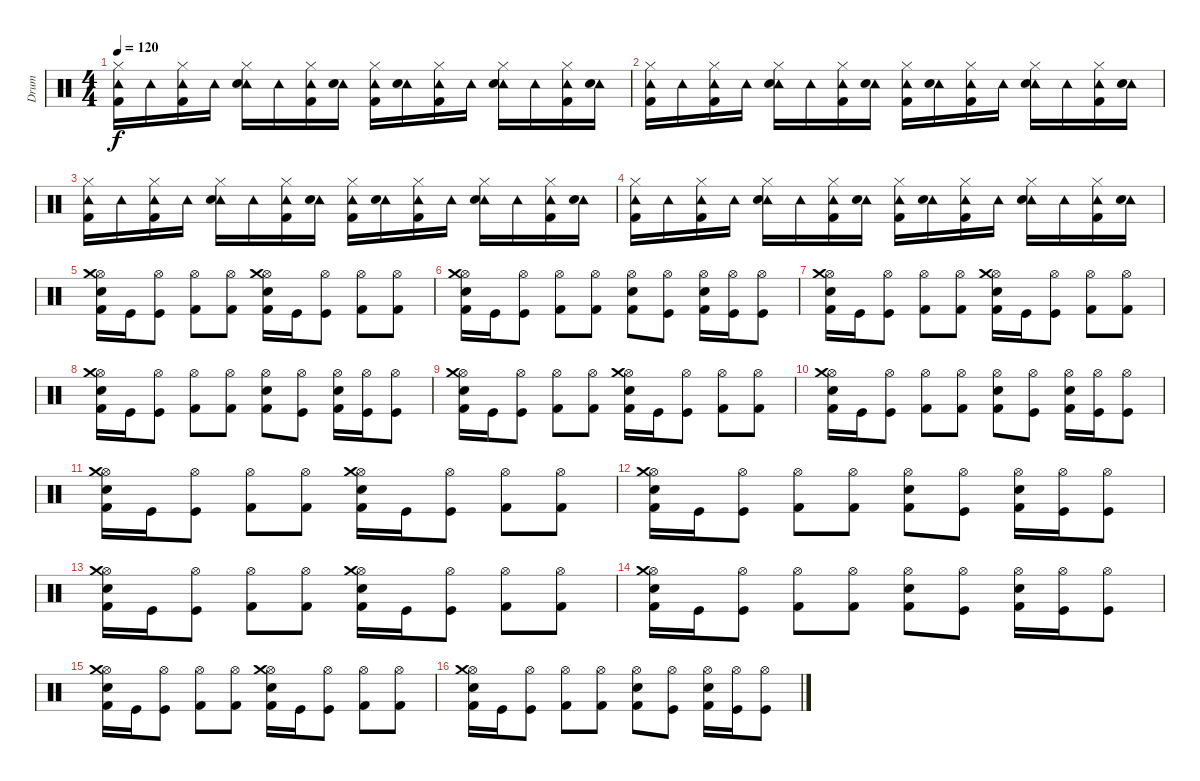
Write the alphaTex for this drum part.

\track ("Drum" "Drum") {instrument percussion}
\staff {score}
\articulation defaults
\ts (4 4)
\tempo 120
\clef neutral
\ks c
("Hi-Hat (closed)" "Tambourine (hit)" "Kick (hit) 2").16{dy f} "Tambourine (hit)".16 ("Hi-Hat (closed)" "Tambourine (hit)" "Kick (hit) 2").16 "Tambourine (hit)".16 ("Hi-Hat (closed)" "Tambourine (hit)" "Electric Snare (hit)").16 "Tambourine (hit)".16 ("Hi-Hat (closed)" "Tambourine (hit)" "Kick (hit) 2").16 ("Tambourine (hit)" "Electric Snare (hit)").16 ("Hi-Hat (closed)" "Tambourine (hit)" "Kick (hit) 2").16 ("Tambourine (hit)" "Electric Snare (hit)").16 ("Hi-Hat (closed)" "Tambourine (hit)" "Kick (hit) 2").16 "Tambourine (hit)".16 ("Hi-Hat (closed)" "Tambourine (hit)" "Electric Snare (hit)").16 "Tambourine (hit)".16 ("Hi-Hat (closed)" "Tambourine (hit)" "Kick (hit) 2").16 ("Tambourine (hit)" "Electric Snare (hit)").16 |
("Hi-Hat (closed)" "Tambourine (hit)" "Kick (hit) 2").16 "Tambourine (hit)".16 ("Hi-Hat (closed)" "Tambourine (hit)" "Kick (hit) 2").16 "Tambourine (hit)".16 ("Hi-Hat (closed)" "Tambourine (hit)" "Electric Snare (hit)").16 "Tambourine (hit)".16 ("Hi-Hat (closed)" "Tambourine (hit)" "Kick (hit) 2").16 ("Tambourine (hit)" "Electric Snare (hit)").16 ("Hi-Hat (closed)" "Tambourine (hit)" "Kick (hit) 2").16 ("Tambourine (hit)" "Electric Snare (hit)").16 ("Hi-Hat (closed)" "Tambourine (hit)" "Kick (hit) 2").16 "Tambourine (hit)".16 ("Hi-Hat (closed)" "Tambourine (hit)" "Electric Snare (hit)").16 "Tambourine (hit)".16 ("Hi-Hat (closed)" "Tambourine (hit)" "Kick (hit) 2").16 ("Tambourine (hit)" "Electric Snare (hit)").16 |
("Hi-Hat (closed)" "Tambourine (hit)" "Kick (hit) 2").16 "Tambourine (hit)".16 ("Hi-Hat (closed)" "Tambourine (hit)" "Kick (hit) 2").16 "Tambourine (hit)".16 ("Hi-Hat (closed)" "Tambourine (hit)" "Electric Snare (hit)").16 "Tambourine (hit)".16 ("Hi-Hat (closed)" "Tambourine (hit)" "Kick (hit) 2").16 ("Tambourine (hit)" "Electric Snare (hit)").16 ("Hi-Hat (closed)" "Tambourine (hit)" "Kick (hit) 2").16 ("Tambourine (hit)" "Electric Snare (hit)").16 ("Hi-Hat (closed)" "Tambourine (hit)" "Kick (hit) 2").16 "Tambourine (hit)".16 ("Hi-Hat (closed)" "Tambourine (hit)" "Electric Snare (hit)").16 "Tambourine (hit)".16 ("Hi-Hat (closed)" "Tambourine (hit)" "Kick (hit) 2").16 ("Tambourine (hit)" "Electric Snare (hit)").16 |
("Hi-Hat (closed)" "Tambourine (hit)" "Kick (hit) 2").16 "Tambourine (hit)".16 ("Hi-Hat (closed)" "Tambourine (hit)" "Kick (hit) 2").16 "Tambourine (hit)".16 ("Hi-Hat (closed)" "Tambourine (hit)" "Electric Snare (hit)").16 "Tambourine (hit)".16 ("Hi-Hat (closed)" "Tambourine (hit)" "Kick (hit) 2").16 ("Tambourine (hit)" "Electric Snare (hit)").16 ("Hi-Hat (closed)" "Tambourine (hit)" "Kick (hit) 2").16 ("Tambourine (hit)" "Electric Snare (hit)").16 ("Hi-Hat (closed)" "Tambourine (hit)" "Kick (hit) 2").16 "Tambourine (hit)".16 ("Hi-Hat (closed)" "Tambourine (hit)" "Electric Snare (hit)").16 "Tambourine (hit)".16 ("Hi-Hat (closed)" "Tambourine (hit)" "Kick (hit) 2").16 ("Tambourine (hit)" "Electric Snare (hit)").16 |
("Hi-Hat (open)" "Crash medium (hit)" "Snare (hit) 2" "Kick (hit) 2").16 "Kick (hit)".16 ("Hi-Hat (open)" "Kick (hit)").8 ("Hi-Hat (open)" "Kick (hit) 2").8 ("Hi-Hat (open)" "Kick (hit) 2").8 ("Hi-Hat (open)" "Crash medium (hit)" "Snare (hit) 2" "Kick (hit) 2").16 "Kick (hit)".16 ("Hi-Hat (open)" "Kick (hit)").8 ("Hi-Hat (open)" "Kick (hit) 2").8 ("Hi-Hat (open)" "Kick (hit) 2").8 |
("Hi-Hat (open)" "Crash medium (hit)" "Snare (hit) 2" "Kick (hit) 2").16 "Kick (hit)".16 ("Hi-Hat (open)" "Kick (hit)").8 ("Hi-Hat (open)" "Kick (hit) 2").8 ("Hi-Hat (open)" "Kick (hit) 2").8 ("Hi-Hat (open)" "Snare (hit) 2" "Kick (hit) 2").8 ("Hi-Hat (open)" "Kick (hit)").8 ("Hi-Hat (open)" "Snare (hit) 2" "Kick (hit) 2").16 ("Hi-Hat (open)" "Kick (hit)").16 ("Hi-Hat (open)" "Kick (hit)").8 |
("Hi-Hat (open)" "Crash medium (hit)" "Snare (hit) 2" "Kick (hit) 2").16 "Kick (hit)".16 ("Hi-Hat (open)" "Kick (hit)").8 ("Hi-Hat (open)" "Kick (hit) 2").8 ("Hi-Hat (open)" "Kick (hit) 2").8 ("Hi-Hat (open)" "Crash medium (hit)" "Snare (hit) 2" "Kick (hit) 2").16 "Kick (hit)".16 ("Hi-Hat (open)" "Kick (hit)").8 ("Hi-Hat (open)" "Kick (hit) 2").8 ("Hi-Hat (open)" "Kick (hit) 2").8 |
("Hi-Hat (open)" "Crash medium (hit)" "Snare (hit) 2" "Kick (hit) 2").16 "Kick (hit)".16 ("Hi-Hat (open)" "Kick (hit)").8 ("Hi-Hat (open)" "Kick (hit) 2").8 ("Hi-Hat (open)" "Kick (hit) 2").8 ("Hi-Hat (open)" "Snare (hit) 2" "Kick (hit) 2").8 ("Hi-Hat (open)" "Kick (hit)").8 ("Hi-Hat (open)" "Snare (hit) 2" "Kick (hit) 2").16 ("Hi-Hat (open)" "Kick (hit)").16 ("Hi-Hat (open)" "Kick (hit)").8 |
("Hi-Hat (open)" "Crash medium (hit)" "Snare (hit) 2" "Kick (hit) 2").16 "Kick (hit)".16 ("Hi-Hat (open)" "Kick (hit)").8 ("Hi-Hat (open)" "Kick (hit) 2").8 ("Hi-Hat (open)" "Kick (hit) 2").8 ("Hi-Hat (open)" "Crash medium (hit)" "Snare (hit) 2" "Kick (hit) 2").16 "Kick (hit)".16 ("Hi-Hat (open)" "Kick (hit)").8 ("Hi-Hat (open)" "Kick (hit) 2").8 ("Hi-Hat (open)" "Kick (hit) 2").8 |
("Hi-Hat (open)" "Crash medium (hit)" "Snare (hit) 2" "Kick (hit) 2").16 "Kick (hit)".16 ("Hi-Hat (open)" "Kick (hit)").8 ("Hi-Hat (open)" "Kick (hit) 2").8 ("Hi-Hat (open)" "Kick (hit) 2").8 ("Hi-Hat (open)" "Snare (hit) 2" "Kick (hit) 2").8 ("Hi-Hat (open)" "Kick (hit)").8 ("Hi-Hat (open)" "Snare (hit) 2" "Kick (hit) 2").16 ("Hi-Hat (open)" "Kick (hit)").16 ("Hi-Hat (open)" "Kick (hit)").8 |
("Hi-Hat (open)" "Crash medium (hit)" "Snare (hit) 2" "Kick (hit) 2").16 "Kick (hit)".16 ("Hi-Hat (open)" "Kick (hit)").8 ("Hi-Hat (open)" "Kick (hit) 2").8 ("Hi-Hat (open)" "Kick (hit) 2").8 ("Hi-Hat (open)" "Crash medium (hit)" "Snare (hit) 2" "Kick (hit) 2").16 "Kick (hit)".16 ("Hi-Hat (open)" "Kick (hit)").8 ("Hi-Hat (open)" "Kick (hit) 2").8 ("Hi-Hat (open)" "Kick (hit) 2").8 |
("Hi-Hat (open)" "Crash medium (hit)" "Snare (hit) 2" "Kick (hit) 2").16 "Kick (hit)".16 ("Hi-Hat (open)" "Kick (hit)").8 ("Hi-Hat (open)" "Kick (hit) 2").8 ("Hi-Hat (open)" "Kick (hit) 2").8 ("Hi-Hat (open)" "Snare (hit) 2" "Kick (hit) 2").8 ("Hi-Hat (open)" "Kick (hit)").8 ("Hi-Hat (open)" "Snare (hit) 2" "Kick (hit) 2").16 ("Hi-Hat (open)" "Kick (hit)").16 ("Hi-Hat (open)" "Kick (hit)").8 |
("Hi-Hat (open)" "Crash medium (hit)" "Snare (hit) 2" "Kick (hit) 2").16 "Kick (hit)".16 ("Hi-Hat (open)" "Kick (hit)").8 ("Hi-Hat (open)" "Kick (hit) 2").8 ("Hi-Hat (open)" "Kick (hit) 2").8 ("Hi-Hat (open)" "Crash medium (hit)" "Snare (hit) 2" "Kick (hit) 2").16 "Kick (hit)".16 ("Hi-Hat (open)" "Kick (hit)").8 ("Hi-Hat (open)" "Kick (hit) 2").8 ("Hi-Hat (open)" "Kick (hit) 2").8 |
("Hi-Hat (open)" "Crash medium (hit)" "Snare (hit) 2" "Kick (hit) 2").16 "Kick (hit)".16 ("Hi-Hat (open)" "Kick (hit)").8 ("Hi-Hat (open)" "Kick (hit) 2").8 ("Hi-Hat (open)" "Kick (hit) 2").8 ("Hi-Hat (open)" "Snare (hit) 2" "Kick (hit) 2").8 ("Hi-Hat (open)" "Kick (hit)").8 ("Hi-Hat (open)" "Snare (hit) 2" "Kick (hit) 2").16 ("Hi-Hat (open)" "Kick (hit)").16 ("Hi-Hat (open)" "Kick (hit)").8 |
("Hi-Hat (open)" "Crash medium (hit)" "Snare (hit) 2" "Kick (hit) 2").16 "Kick (hit)".16 ("Hi-Hat (open)" "Kick (hit)").8 ("Hi-Hat (open)" "Kick (hit) 2").8 ("Hi-Hat (open)" "Kick (hit) 2").8 ("Hi-Hat (open)" "Crash medium (hit)" "Snare (hit) 2" "Kick (hit) 2").16 "Kick (hit)".16 ("Hi-Hat (open)" "Kick (hit)").8 ("Hi-Hat (open)" "Kick (hit) 2").8 ("Hi-Hat (open)" "Kick (hit) 2").8 |
("Hi-Hat (open)" "Crash medium (hit)" "Snare (hit) 2" "Kick (hit) 2").16 "Kick (hit)".16 ("Hi-Hat (open)" "Kick (hit)").8 ("Hi-Hat (open)" "Kick (hit) 2").8 ("Hi-Hat (open)" "Kick (hit) 2").8 ("Hi-Hat (open)" "Snare (hit) 2" "Kick (hit) 2").8 ("Hi-Hat (open)" "Kick (hit)").8 ("Hi-Hat (open)" "Snare (hit) 2" "Kick (hit) 2").16 ("Hi-Hat (open)" "Kick (hit)").16 ("Hi-Hat (open)" "Kick (hit)").8
